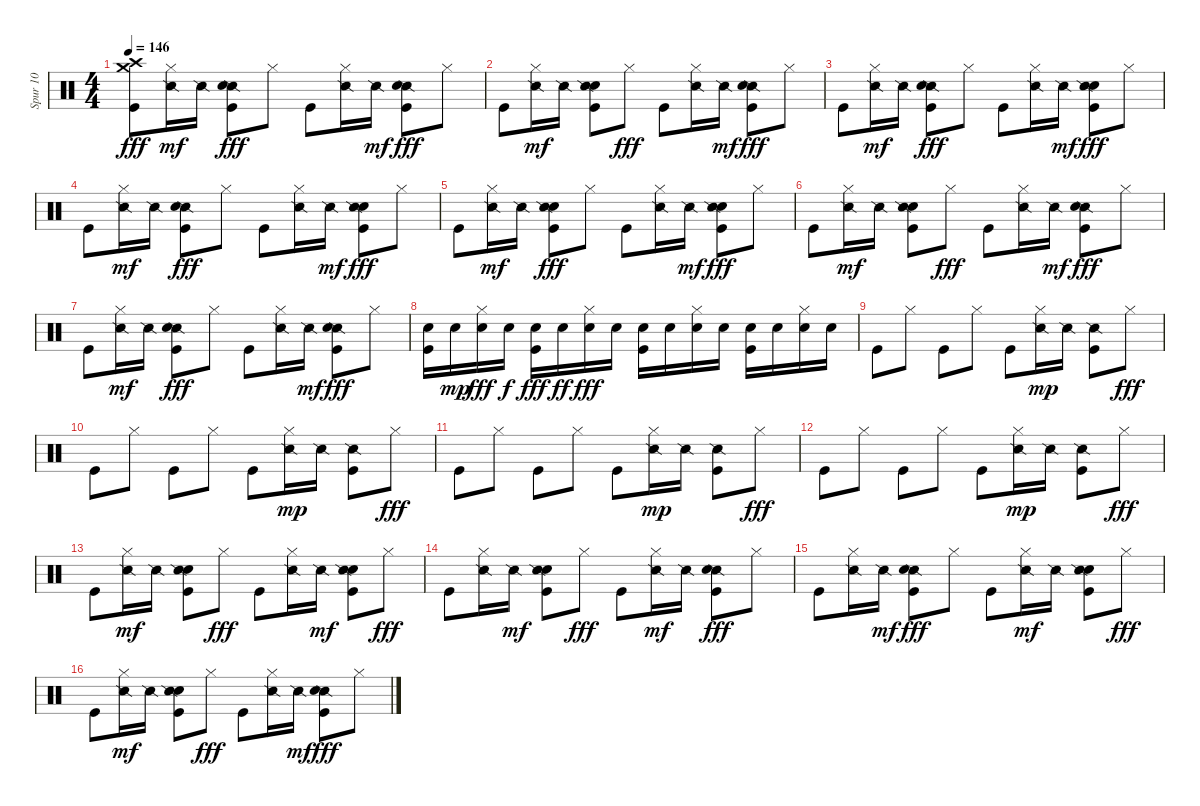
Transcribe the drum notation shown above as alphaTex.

\track ("Spur 10" "Spur 10") {instrument percussion}
\staff {score}
\articulation defaults
\ts (4 4)
\tempo 146
\clef neutral
\ks c
("Crash high (hit)" "Crash medium (hit)" "Kick (hit)").8{dy fff} ("Hi-Hat (closed)" "Snare (side stick) 2").16{dy mf} "Snare (side stick) 2".16 ("Snare (side stick) 2" "Kick (hit)" "Hand Clap (hit)").8{dy fff} "Hi-Hat (closed)".8 "Kick (hit)".8 ("Snare (side stick) 2" "Hi-Hat (closed)").16 "Snare (side stick) 2".16{dy mf} ("Snare (side stick) 2" "Kick (hit)" "Hand Clap (hit)").8{dy fff} "Hi-Hat (closed)".8 |
"Kick (hit)".8 ("Hi-Hat (closed)" "Snare (side stick) 2").16{dy mf} "Snare (side stick) 2".16 ("Kick (hit)" "Hand Clap (hit)" "Snare (side stick) 2").8 "Hi-Hat (closed)".8{dy fff} "Kick (hit)".8 ("Snare (side stick) 2" "Hi-Hat (closed)").16 "Snare (side stick) 2".16{dy mf} ("Snare (side stick) 2" "Kick (hit)" "Hand Clap (hit)").8{dy fff} "Hi-Hat (closed)".8 |
"Kick (hit)".8 ("Hi-Hat (closed)" "Snare (side stick) 2").16{dy mf} "Snare (side stick) 2".16 ("Snare (side stick) 2" "Hand Clap (hit)" "Kick (hit)").8{dy fff} "Hi-Hat (closed)".8 "Kick (hit)".8 ("Snare (side stick) 2" "Hi-Hat (closed)").16 "Snare (side stick) 2".16{dy mf} ("Hand Clap (hit)" "Snare (side stick) 2" "Kick (hit)").8{dy fff} "Hi-Hat (closed)".8 |
"Kick (hit)".8 ("Hi-Hat (closed)" "Snare (side stick) 2").16{dy mf} "Snare (side stick) 2".16 ("Snare (side stick) 2" "Hand Clap (hit)" "Kick (hit)").8{dy fff} "Hi-Hat (closed)".8 "Kick (hit)".8 ("Snare (side stick) 2" "Hi-Hat (closed)").16 "Snare (side stick) 2".16{dy mf} ("Hand Clap (hit)" "Snare (side stick) 2" "Kick (hit)").8{dy fff} "Hi-Hat (closed)".8 |
"Kick (hit)".8 ("Hi-Hat (closed)" "Snare (side stick) 2").16{dy mf} "Snare (side stick) 2".16 ("Hand Clap (hit)" "Snare (side stick) 2" "Kick (hit)").8{dy fff} "Hi-Hat (closed)".8 "Kick (hit)".8 ("Snare (side stick) 2" "Hi-Hat (closed)").16 "Snare (side stick) 2".16{dy mf} ("Hand Clap (hit)" "Snare (side stick) 2" "Kick (hit)").8{dy fff} "Hi-Hat (closed)".8 |
"Kick (hit)".8 ("Hi-Hat (closed)" "Snare (side stick) 2").16{dy mf} "Snare (side stick) 2".16 ("Kick (hit)" "Hand Clap (hit)" "Snare (side stick) 2").8 "Hi-Hat (closed)".8{dy fff} "Kick (hit)".8 ("Snare (side stick) 2" "Hi-Hat (closed)").16 "Snare (side stick) 2".16{dy mf} ("Snare (side stick) 2" "Kick (hit)" "Hand Clap (hit)").8{dy fff} "Hi-Hat (closed)".8 |
"Kick (hit)".8 ("Hi-Hat (closed)" "Snare (side stick) 2").16{dy mf} "Snare (side stick) 2".16 ("Snare (side stick) 2" "Kick (hit)" "Hand Clap (hit)").8{dy fff} "Hi-Hat (closed)".8 "Kick (hit)".8 ("Snare (side stick) 2" "Hi-Hat (closed)").16 "Snare (side stick) 2".16{dy mf} ("Kick (hit)" "Snare (side stick) 2" "Hand Clap (hit)").8{dy fff} "Hi-Hat (closed)".8 |
("Snare (hit) 2" "Kick (hit)").16 "Snare (hit) 2".16{dy mp} ("Snare (hit) 2" "Hi-Hat (closed)").16{dy fff} "Snare (hit) 2".16{dy f} ("Snare (hit) 2" "Kick (hit)").16{dy fff} "Snare (hit) 2".16{dy ff} ("Snare (hit) 2" "Hi-Hat (closed)").16{dy fff} "Snare (hit) 2".16 ("Snare (hit) 2" "Kick (hit)").16 "Snare (hit) 2".16 ("Hi-Hat (closed)" "Snare (hit) 2").16 "Snare (hit) 2".16 ("Snare (hit) 2" "Kick (hit)").16 "Snare (hit) 2".16 ("Hi-Hat (closed)" "Snare (hit) 2").16 "Snare (hit) 2".16 |
"Kick (hit)".8 "Hi-Hat (closed)".8 "Kick (hit)".8 "Hi-Hat (closed)".8 "Kick (hit)".8 ("Hi-Hat (closed)" "Snare (side stick) 2").16{dy mp} "Snare (side stick) 2".16 ("Kick (hit)" "Snare (side stick) 2").8 "Hi-Hat (closed)".8{dy fff} |
"Kick (hit)".8 "Hi-Hat (closed)".8 "Kick (hit)".8 "Hi-Hat (closed)".8 "Kick (hit)".8 ("Hi-Hat (closed)" "Snare (side stick) 2").16{dy mp} "Snare (side stick) 2".16 ("Kick (hit)" "Snare (side stick) 2").8 "Hi-Hat (closed)".8{dy fff} |
"Kick (hit)".8 "Hi-Hat (closed)".8 "Kick (hit)".8 "Hi-Hat (closed)".8 "Kick (hit)".8 ("Hi-Hat (closed)" "Snare (side stick) 2").16{dy mp} "Snare (side stick) 2".16 ("Kick (hit)" "Snare (side stick) 2").8 "Hi-Hat (closed)".8{dy fff} |
"Kick (hit)".8 "Hi-Hat (closed)".8 "Kick (hit)".8 "Hi-Hat (closed)".8 "Kick (hit)".8 ("Hi-Hat (closed)" "Snare (side stick) 2").16{dy mp} "Snare (side stick) 2".16 ("Kick (hit)" "Snare (side stick) 2").8 "Hi-Hat (closed)".8{dy fff} |
"Kick (hit)".8 ("Hi-Hat (closed)" "Snare (side stick) 2").16{dy mf} "Snare (side stick) 2".16 ("Hand Clap (hit)" "Kick (hit)" "Snare (side stick) 2").8 "Hi-Hat (closed)".8{dy fff} "Kick (hit)".8 ("Snare (side stick) 2" "Hi-Hat (closed)").16 "Snare (side stick) 2".16{dy mf} ("Hand Clap (hit)" "Kick (hit)" "Snare (side stick) 2").8 "Hi-Hat (closed)".8{dy fff} |
"Kick (hit)".8 ("Snare (side stick) 2" "Hi-Hat (closed)").16 "Snare (side stick) 2".16{dy mf} ("Kick (hit)" "Hand Clap (hit)" "Snare (side stick) 2").8 "Hi-Hat (closed)".8{dy fff} "Kick (hit)".8 ("Hi-Hat (closed)" "Snare (side stick) 2").16{dy mf} "Snare (side stick) 2".16 ("Snare (side stick) 2" "Kick (hit)" "Hand Clap (hit)").8{dy fff} "Hi-Hat (closed)".8 |
"Kick (hit)".8 ("Snare (side stick) 2" "Hi-Hat (closed)").16 "Snare (side stick) 2".16{dy mf} ("Snare (side stick) 2" "Hand Clap (hit)" "Kick (hit)").8{dy fff} "Hi-Hat (closed)".8 "Kick (hit)".8 ("Hi-Hat (closed)" "Snare (side stick) 2").16{dy mf} "Snare (side stick) 2".16 ("Hand Clap (hit)" "Kick (hit)" "Snare (side stick) 2").8 "Hi-Hat (closed)".8{dy fff} |
"Kick (hit)".8 ("Hi-Hat (closed)" "Snare (side stick) 2").16{dy mf} "Snare (side stick) 2".16 ("Kick (hit)" "Hand Clap (hit)" "Snare (side stick) 2").8 "Hi-Hat (closed)".8{dy fff} "Kick (hit)".8 ("Snare (side stick) 2" "Hi-Hat (closed)").16 "Snare (side stick) 2".16{dy mf} ("Kick (hit)" "Snare (side stick) 2" "Hand Clap (hit)").8{dy fff} "Hi-Hat (closed)".8
